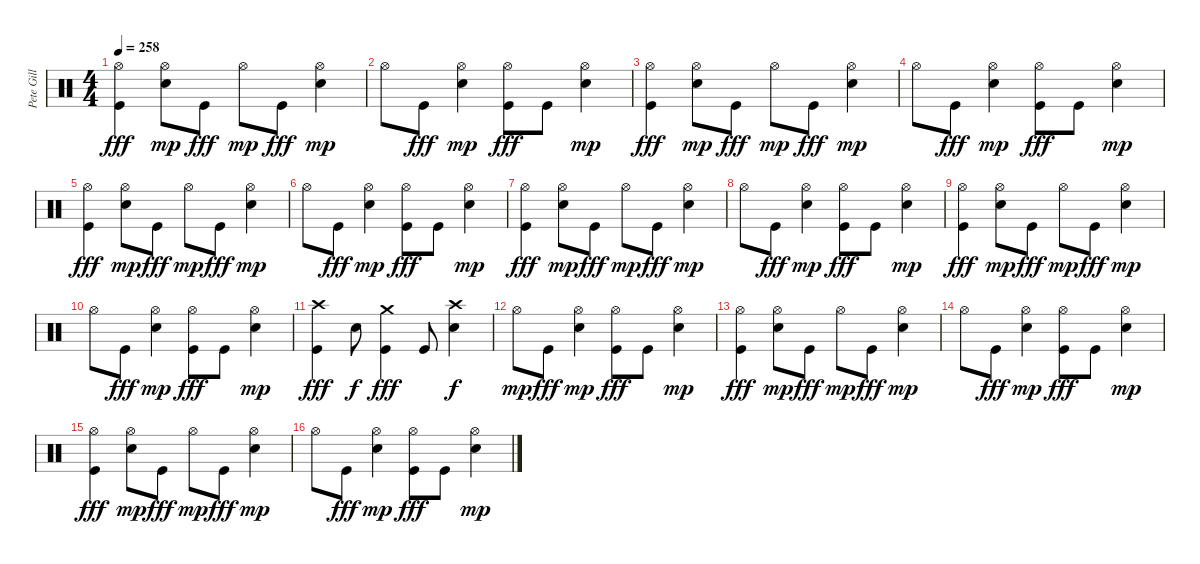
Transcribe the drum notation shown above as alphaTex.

\track ("Pete Gill" "Pete Gill") {instrument percussion}
\staff {score}
\articulation defaults
\ts (4 4)
\tempo 258
\clef neutral
\ks c
("Hi-Hat (open)" "Kick (hit)").4{dy fff} ("Hi-Hat (open)" "Electric Snare (hit)").8{dy mp} "Kick (hit)".8{dy fff} "Hi-Hat (open)".8{dy mp} "Kick (hit)".8{dy fff} ("Hi-Hat (open)" "Electric Snare (hit)").4{dy mp} |
"Hi-Hat (open)".8 "Kick (hit)".8{dy fff} ("Hi-Hat (open)" "Electric Snare (hit)").4{dy mp} ("Hi-Hat (open)" "Kick (hit)").8{dy fff} "Kick (hit)".8 ("Hi-Hat (open)" "Electric Snare (hit)").4{dy mp} |
("Hi-Hat (open)" "Kick (hit)").4{dy fff} ("Hi-Hat (open)" "Electric Snare (hit)").8{dy mp} "Kick (hit)".8{dy fff} "Hi-Hat (open)".8{dy mp} "Kick (hit)".8{dy fff} ("Hi-Hat (open)" "Electric Snare (hit)").4{dy mp} |
"Hi-Hat (open)".8 "Kick (hit)".8{dy fff} ("Hi-Hat (open)" "Electric Snare (hit)").4{dy mp} ("Hi-Hat (open)" "Kick (hit)").8{dy fff} "Kick (hit)".8 ("Hi-Hat (open)" "Electric Snare (hit)").4{dy mp} |
("Hi-Hat (open)" "Kick (hit)").4{dy fff} ("Hi-Hat (open)" "Electric Snare (hit)").8{dy mp} "Kick (hit)".8{dy fff} "Hi-Hat (open)".8{dy mp} "Kick (hit)".8{dy fff} ("Hi-Hat (open)" "Electric Snare (hit)").4{dy mp} |
"Hi-Hat (open)".8 "Kick (hit)".8{dy fff} ("Hi-Hat (open)" "Electric Snare (hit)").4{dy mp} ("Hi-Hat (open)" "Kick (hit)").8{dy fff} "Kick (hit)".8 ("Hi-Hat (open)" "Electric Snare (hit)").4{dy mp} |
("Hi-Hat (open)" "Kick (hit)").4{dy fff} ("Hi-Hat (open)" "Electric Snare (hit)").8{dy mp} "Kick (hit)".8{dy fff} "Hi-Hat (open)".8{dy mp} "Kick (hit)".8{dy fff} ("Hi-Hat (open)" "Electric Snare (hit)").4{dy mp} |
"Hi-Hat (open)".8 "Kick (hit)".8{dy fff} ("Hi-Hat (open)" "Electric Snare (hit)").4{dy mp} ("Hi-Hat (open)" "Kick (hit)").8{dy fff} "Kick (hit)".8 ("Hi-Hat (open)" "Electric Snare (hit)").4{dy mp} |
("Hi-Hat (open)" "Kick (hit)").4{dy fff} ("Hi-Hat (open)" "Electric Snare (hit)").8{dy mp} "Kick (hit)".8{dy fff} "Hi-Hat (open)".8{dy mp} "Kick (hit)".8{dy fff} ("Hi-Hat (open)" "Electric Snare (hit)").4{dy mp} |
"Hi-Hat (open)".8 "Kick (hit)".8{dy fff} ("Hi-Hat (open)" "Electric Snare (hit)").4{dy mp} ("Hi-Hat (open)" "Kick (hit)").8{dy fff} "Kick (hit)".8 ("Hi-Hat (open)" "Electric Snare (hit)").4{dy mp} |
("Crash high (hit)" "Kick (hit)").4{dy fff} "Electric Snare (hit)".8{dy f} ("Crash medium (hit)" "Kick (hit)").4{dy fff} "Kick (hit)".8 ("Crash high (hit)" "Electric Snare (hit)").4{dy f} |
"Hi-Hat (open)".8{dy mp} "Kick (hit)".8{dy fff} ("Hi-Hat (open)" "Electric Snare (hit)").4{dy mp} ("Hi-Hat (open)" "Kick (hit)").8{dy fff} "Kick (hit)".8 ("Hi-Hat (open)" "Electric Snare (hit)").4{dy mp} |
("Hi-Hat (open)" "Kick (hit)").4{dy fff} ("Hi-Hat (open)" "Electric Snare (hit)").8{dy mp} "Kick (hit)".8{dy fff} "Hi-Hat (open)".8{dy mp} "Kick (hit)".8{dy fff} ("Hi-Hat (open)" "Electric Snare (hit)").4{dy mp} |
"Hi-Hat (open)".8 "Kick (hit)".8{dy fff} ("Hi-Hat (open)" "Electric Snare (hit)").4{dy mp} ("Hi-Hat (open)" "Kick (hit)").8{dy fff} "Kick (hit)".8 ("Hi-Hat (open)" "Electric Snare (hit)").4{dy mp} |
("Hi-Hat (open)" "Kick (hit)").4{dy fff} ("Hi-Hat (open)" "Electric Snare (hit)").8{dy mp} "Kick (hit)".8{dy fff} "Hi-Hat (open)".8{dy mp} "Kick (hit)".8{dy fff} ("Hi-Hat (open)" "Electric Snare (hit)").4{dy mp} |
"Hi-Hat (open)".8 "Kick (hit)".8{dy fff} ("Hi-Hat (open)" "Electric Snare (hit)").4{dy mp} ("Hi-Hat (open)" "Kick (hit)").8{dy fff} "Kick (hit)".8 ("Hi-Hat (open)" "Electric Snare (hit)").4{dy mp}
